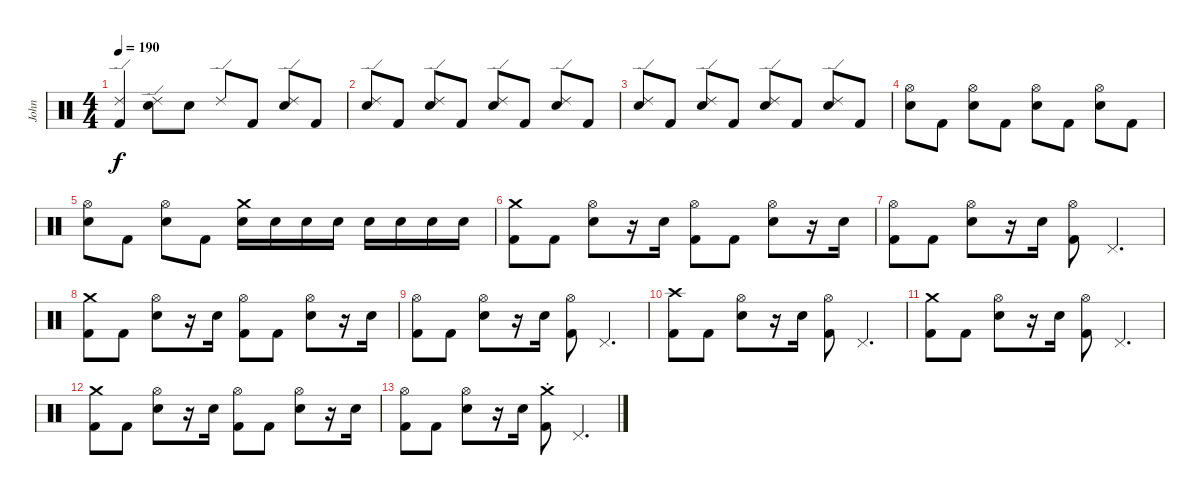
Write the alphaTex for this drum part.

\track ("John" "John") {instrument percussion}
\staff {score}
\articulation defaults
\ts (4 4)
\tempo 190
\clef neutral
\ks c
("Kick (hit) 2" "Ride (edge) 2").4{dy f} ("Snare (hit) 2" "Ride (edge) 2").8 "Snare (hit) 2".8 "Ride (edge) 2".8 "Kick (hit) 2".8 ("Snare (hit) 2" "Ride (edge) 2").8 "Kick (hit) 2".8 |
("Snare (hit) 2" "Ride (edge) 2").8 "Kick (hit) 2".8 ("Snare (hit) 2" "Ride (edge) 2").8 "Kick (hit) 2".8 ("Snare (hit) 2" "Ride (edge) 2").8 "Kick (hit) 2".8 ("Snare (hit) 2" "Ride (edge) 2").8 "Kick (hit) 2".8 |
("Snare (hit) 2" "Ride (edge) 2").8 "Kick (hit) 2".8 ("Snare (hit) 2" "Ride (edge) 2").8 "Kick (hit) 2".8 ("Snare (hit) 2" "Ride (edge) 2").8 "Kick (hit) 2".8 ("Snare (hit) 2" "Ride (edge) 2").8 "Kick (hit) 2".8 |
("Snare (hit) 2" "Hi-Hat (open)").8 "Kick (hit) 2".8 ("Snare (hit) 2" "Hi-Hat (open)").8 "Kick (hit) 2".8 ("Snare (hit) 2" "Hi-Hat (open)").8 "Kick (hit) 2".8 ("Snare (hit) 2" "Hi-Hat (open)").8 "Kick (hit) 2".8 |
("Snare (hit) 2" "Hi-Hat (open)").8 "Kick (hit) 2".8 ("Snare (hit) 2" "Hi-Hat (open)").8 "Kick (hit) 2".8 ("Snare (hit) 2" "Crash medium (hit)").16 "Snare (hit) 2".16 "Snare (hit) 2".16 "Snare (hit) 2".16 "Snare (hit) 2".16 "Snare (hit) 2".16 "Snare (hit) 2".16 "Snare (hit) 2".16 |
("Kick (hit) 2" "Crash medium (hit)").8 "Kick (hit) 2".8 ("Snare (hit) 2" "Hi-Hat (open)").8 r.16 "Snare (hit) 2".16 ("Kick (hit) 2" "Hi-Hat (open)").8 "Kick (hit) 2".8 ("Snare (hit) 2" "Hi-Hat (open)").8 r.16 "Snare (hit) 2".16 |
("Kick (hit) 2" "Hi-Hat (open)").8 "Kick (hit) 2".8 ("Snare (hit) 2" "Hi-Hat (open)").8 r.16 "Snare (hit) 2".16 ("Kick (hit) 2" "Hi-Hat (open)").8 "Pedal Hi-Hat (hit)".4{d} |
("Kick (hit) 2" "Crash medium (hit)").8 "Kick (hit) 2".8 ("Snare (hit) 2" "Hi-Hat (open)").8 r.16 "Snare (hit) 2".16 ("Kick (hit) 2" "Hi-Hat (open)").8 "Kick (hit) 2".8 ("Snare (hit) 2" "Hi-Hat (open)").8 r.16 "Snare (hit) 2".16 |
("Kick (hit) 2" "Hi-Hat (open)").8 "Kick (hit) 2".8 ("Snare (hit) 2" "Hi-Hat (open)").8 r.16 "Snare (hit) 2".16 ("Kick (hit) 2" "Hi-Hat (open)").8 "Pedal Hi-Hat (hit)".4{d} |
("Kick (hit) 2" "Crash high (hit)").8 "Kick (hit) 2".8 ("Snare (hit) 2" "Hi-Hat (open)").8 r.16 "Snare (hit) 2".16 ("Kick (hit) 2" "Hi-Hat (open)").8 "Pedal Hi-Hat (hit)".4{d} |
("Kick (hit) 2" "Crash medium (hit)").8 "Kick (hit) 2".8 ("Snare (hit) 2" "Hi-Hat (open)").8 r.16 "Snare (hit) 2".16 ("Kick (hit) 2" "Hi-Hat (open)").8 "Pedal Hi-Hat (hit)".4{d} |
("Kick (hit) 2" "Crash medium (hit)").8 "Kick (hit) 2".8 ("Snare (hit) 2" "Hi-Hat (open)").8 r.16 "Snare (hit) 2".16 ("Kick (hit) 2" "Hi-Hat (open)").8 "Kick (hit) 2".8 ("Snare (hit) 2" "Hi-Hat (open)").8 r.16 "Snare (hit) 2".16 |
("Kick (hit) 2" "Hi-Hat (open)").8 "Kick (hit) 2".8 ("Snare (hit) 2" "Hi-Hat (open)").8 r.16 "Snare (hit) 2".16 ("Kick (hit) 2" "Crash medium (hit)"{st}).8 "Pedal Hi-Hat (hit)".4{d}
